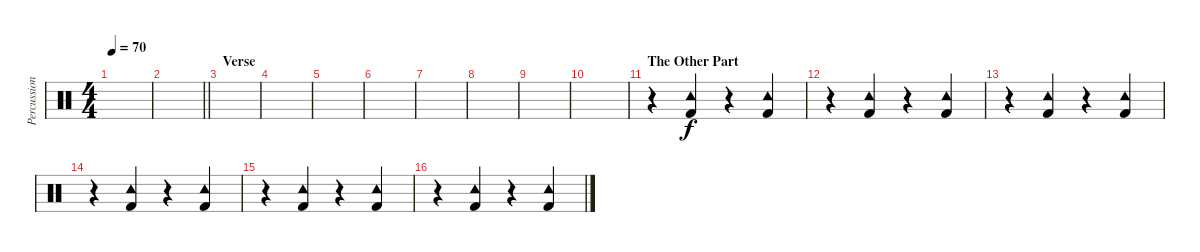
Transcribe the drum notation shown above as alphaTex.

\track ("Percussion" "Percussion") {instrument percussion}
\staff {score}
\articulation defaults
\ts (4 4)
\tempo 70
\clef neutral
\ks c
|
\barLineRight lightlight
|
\section ("" "Verse")
|
|
|
|
|
|
|
|
\section ("" "The Other Part")
r.4 ("Tambourine (hit)" "Kick (hit) 2").4 r.4 ("Tambourine (hit)" "Kick (hit) 2").4 |
r.4 ("Tambourine (hit)" "Kick (hit) 2").4 r.4 ("Tambourine (hit)" "Kick (hit) 2").4 |
r.4 ("Tambourine (hit)" "Kick (hit) 2").4 r.4 ("Tambourine (hit)" "Kick (hit) 2").4 |
r.4 ("Tambourine (hit)" "Kick (hit) 2").4 r.4 ("Tambourine (hit)" "Kick (hit) 2").4 |
r.4 ("Tambourine (hit)" "Kick (hit) 2").4 r.4 ("Tambourine (hit)" "Kick (hit) 2").4 |
r.4 ("Tambourine (hit)" "Kick (hit) 2").4 r.4 ("Tambourine (hit)" "Kick (hit) 2").4
